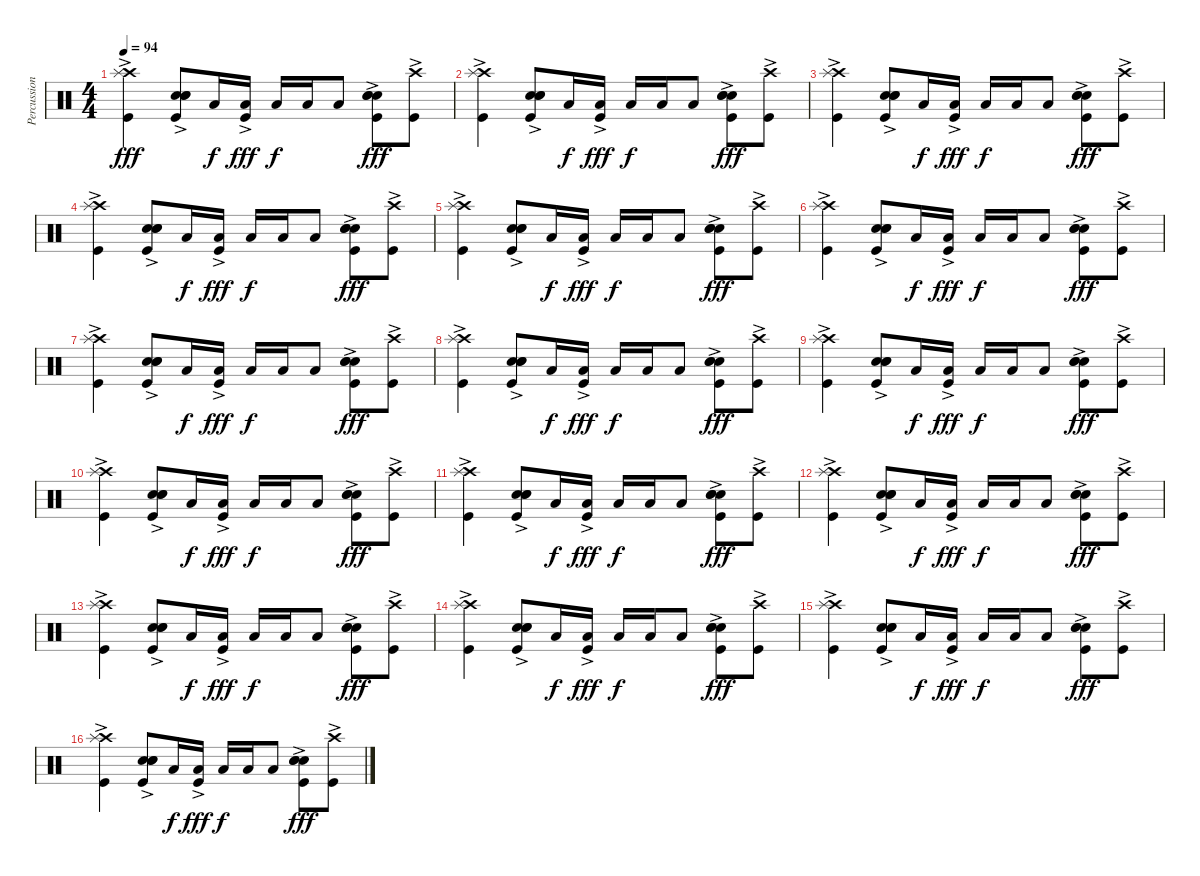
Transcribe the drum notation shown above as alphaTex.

\track ("Percussion" "Percussion") {instrument percussion}
\staff {score}
\articulation defaults
\ts (4 4)
\tempo 94
\clef neutral
\ks c
("Crash high (hit)" "Splash (hit)" "Kick (hit)"{ac}).4{dy fff} ("Kick (hit)"{ac} "Snare (hit) 2" "Electric Snare (hit)" "Hand Clap (hit)"{ac}).8 "Low Floor Tom (hit)".16{dy f} ("Kick (hit)"{ac} "Low Floor Tom (hit)").16{dy fff} "Low Floor Tom (hit)".16{dy f} "Low Floor Tom (hit)".16 "Low Floor Tom (hit)".8 ("Hand Clap (hit)" "Electric Snare (hit)" "Snare (hit) 2" "Kick (hit)"{ac}).8{dy fff} ("Crash high (hit)" "Kick (hit)"{ac}).8 |
("Crash high (hit)" "Splash (hit)" "Kick (hit)"{ac}).4 ("Kick (hit)"{ac} "Snare (hit) 2" "Electric Snare (hit)" "Hand Clap (hit)"{ac}).8 "Low Floor Tom (hit)".16{dy f} ("Kick (hit)"{ac} "Low Floor Tom (hit)").16{dy fff} "Low Floor Tom (hit)".16{dy f} "Low Floor Tom (hit)".16 "Low Floor Tom (hit)".8 ("Hand Clap (hit)" "Electric Snare (hit)" "Snare (hit) 2" "Kick (hit)"{ac}).8{dy fff} ("Crash high (hit)" "Kick (hit)"{ac}).8 |
("Crash high (hit)" "Splash (hit)" "Kick (hit)"{ac}).4 ("Kick (hit)"{ac} "Snare (hit) 2" "Electric Snare (hit)" "Hand Clap (hit)"{ac}).8 "Low Floor Tom (hit)".16{dy f} ("Kick (hit)"{ac} "Low Floor Tom (hit)").16{dy fff} "Low Floor Tom (hit)".16{dy f} "Low Floor Tom (hit)".16 "Low Floor Tom (hit)".8 ("Hand Clap (hit)" "Electric Snare (hit)" "Snare (hit) 2" "Kick (hit)"{ac}).8{dy fff} ("Crash high (hit)" "Kick (hit)"{ac}).8 |
("Crash high (hit)" "Splash (hit)" "Kick (hit)"{ac}).4 ("Kick (hit)"{ac} "Snare (hit) 2" "Electric Snare (hit)" "Hand Clap (hit)"{ac}).8 "Low Floor Tom (hit)".16{dy f} ("Kick (hit)"{ac} "Low Floor Tom (hit)").16{dy fff} "Low Floor Tom (hit)".16{dy f} "Low Floor Tom (hit)".16 "Low Floor Tom (hit)".8 ("Hand Clap (hit)" "Electric Snare (hit)" "Snare (hit) 2" "Kick (hit)"{ac}).8{dy fff} ("Crash high (hit)" "Kick (hit)"{ac}).8 |
("Crash high (hit)" "Splash (hit)" "Kick (hit)"{ac}).4 ("Kick (hit)"{ac} "Snare (hit) 2" "Electric Snare (hit)" "Hand Clap (hit)"{ac}).8 "Low Floor Tom (hit)".16{dy f} ("Kick (hit)"{ac} "Low Floor Tom (hit)").16{dy fff} "Low Floor Tom (hit)".16{dy f} "Low Floor Tom (hit)".16 "Low Floor Tom (hit)".8 ("Hand Clap (hit)" "Electric Snare (hit)" "Snare (hit) 2" "Kick (hit)"{ac}).8{dy fff} ("Crash high (hit)" "Kick (hit)"{ac}).8 |
("Crash high (hit)" "Splash (hit)" "Kick (hit)"{ac}).4 ("Kick (hit)"{ac} "Snare (hit) 2" "Electric Snare (hit)" "Hand Clap (hit)"{ac}).8 "Low Floor Tom (hit)".16{dy f} ("Kick (hit)"{ac} "Low Floor Tom (hit)").16{dy fff} "Low Floor Tom (hit)".16{dy f} "Low Floor Tom (hit)".16 "Low Floor Tom (hit)".8 ("Hand Clap (hit)" "Electric Snare (hit)" "Snare (hit) 2" "Kick (hit)"{ac}).8{dy fff} ("Crash high (hit)" "Kick (hit)"{ac}).8 |
("Crash high (hit)" "Splash (hit)" "Kick (hit)"{ac}).4 ("Kick (hit)"{ac} "Snare (hit) 2" "Electric Snare (hit)" "Hand Clap (hit)"{ac}).8 "Low Floor Tom (hit)".16{dy f} ("Kick (hit)"{ac} "Low Floor Tom (hit)").16{dy fff} "Low Floor Tom (hit)".16{dy f} "Low Floor Tom (hit)".16 "Low Floor Tom (hit)".8 ("Hand Clap (hit)" "Electric Snare (hit)" "Snare (hit) 2" "Kick (hit)"{ac}).8{dy fff} ("Crash high (hit)" "Kick (hit)"{ac}).8 |
("Crash high (hit)" "Splash (hit)" "Kick (hit)"{ac}).4 ("Kick (hit)"{ac} "Snare (hit) 2" "Electric Snare (hit)" "Hand Clap (hit)"{ac}).8 "Low Floor Tom (hit)".16{dy f} ("Kick (hit)"{ac} "Low Floor Tom (hit)").16{dy fff} "Low Floor Tom (hit)".16{dy f} "Low Floor Tom (hit)".16 "Low Floor Tom (hit)".8 ("Hand Clap (hit)" "Electric Snare (hit)" "Snare (hit) 2" "Kick (hit)"{ac}).8{dy fff} ("Crash high (hit)" "Kick (hit)"{ac}).8 |
("Crash high (hit)" "Splash (hit)" "Kick (hit)"{ac}).4 ("Kick (hit)"{ac} "Snare (hit) 2" "Electric Snare (hit)" "Hand Clap (hit)"{ac}).8 "Low Floor Tom (hit)".16{dy f} ("Kick (hit)"{ac} "Low Floor Tom (hit)").16{dy fff} "Low Floor Tom (hit)".16{dy f} "Low Floor Tom (hit)".16 "Low Floor Tom (hit)".8 ("Hand Clap (hit)" "Electric Snare (hit)" "Snare (hit) 2" "Kick (hit)"{ac}).8{dy fff} ("Crash high (hit)" "Kick (hit)"{ac}).8 |
("Crash high (hit)" "Splash (hit)" "Kick (hit)"{ac}).4 ("Kick (hit)"{ac} "Snare (hit) 2" "Electric Snare (hit)" "Hand Clap (hit)"{ac}).8 "Low Floor Tom (hit)".16{dy f} ("Kick (hit)"{ac} "Low Floor Tom (hit)").16{dy fff} "Low Floor Tom (hit)".16{dy f} "Low Floor Tom (hit)".16 "Low Floor Tom (hit)".8 ("Hand Clap (hit)" "Electric Snare (hit)" "Snare (hit) 2" "Kick (hit)"{ac}).8{dy fff} ("Crash high (hit)" "Kick (hit)"{ac}).8 |
("Crash high (hit)" "Splash (hit)" "Kick (hit)"{ac}).4 ("Kick (hit)"{ac} "Snare (hit) 2" "Electric Snare (hit)" "Hand Clap (hit)"{ac}).8 "Low Floor Tom (hit)".16{dy f} ("Kick (hit)"{ac} "Low Floor Tom (hit)").16{dy fff} "Low Floor Tom (hit)".16{dy f} "Low Floor Tom (hit)".16 "Low Floor Tom (hit)".8 ("Hand Clap (hit)" "Electric Snare (hit)" "Snare (hit) 2" "Kick (hit)"{ac}).8{dy fff} ("Crash high (hit)" "Kick (hit)"{ac}).8 |
("Crash high (hit)" "Splash (hit)" "Kick (hit)"{ac}).4 ("Kick (hit)"{ac} "Snare (hit) 2" "Electric Snare (hit)" "Hand Clap (hit)"{ac}).8 "Low Floor Tom (hit)".16{dy f} ("Kick (hit)"{ac} "Low Floor Tom (hit)").16{dy fff} "Low Floor Tom (hit)".16{dy f} "Low Floor Tom (hit)".16 "Low Floor Tom (hit)".8 ("Hand Clap (hit)" "Electric Snare (hit)" "Snare (hit) 2" "Kick (hit)"{ac}).8{dy fff} ("Crash high (hit)" "Kick (hit)"{ac}).8 |
("Crash high (hit)" "Splash (hit)" "Kick (hit)"{ac}).4 ("Kick (hit)"{ac} "Snare (hit) 2" "Electric Snare (hit)" "Hand Clap (hit)"{ac}).8 "Low Floor Tom (hit)".16{dy f} ("Kick (hit)"{ac} "Low Floor Tom (hit)").16{dy fff} "Low Floor Tom (hit)".16{dy f} "Low Floor Tom (hit)".16 "Low Floor Tom (hit)".8 ("Hand Clap (hit)" "Electric Snare (hit)" "Snare (hit) 2" "Kick (hit)"{ac}).8{dy fff} ("Crash high (hit)" "Kick (hit)"{ac}).8 |
("Crash high (hit)" "Splash (hit)" "Kick (hit)"{ac}).4 ("Kick (hit)"{ac} "Snare (hit) 2" "Electric Snare (hit)" "Hand Clap (hit)"{ac}).8 "Low Floor Tom (hit)".16{dy f} ("Kick (hit)"{ac} "Low Floor Tom (hit)").16{dy fff} "Low Floor Tom (hit)".16{dy f} "Low Floor Tom (hit)".16 "Low Floor Tom (hit)".8 ("Hand Clap (hit)" "Electric Snare (hit)" "Snare (hit) 2" "Kick (hit)"{ac}).8{dy fff} ("Crash high (hit)" "Kick (hit)"{ac}).8 |
("Crash high (hit)" "Splash (hit)" "Kick (hit)"{ac}).4 ("Kick (hit)"{ac} "Snare (hit) 2" "Electric Snare (hit)" "Hand Clap (hit)"{ac}).8 "Low Floor Tom (hit)".16{dy f} ("Kick (hit)"{ac} "Low Floor Tom (hit)").16{dy fff} "Low Floor Tom (hit)".16{dy f} "Low Floor Tom (hit)".16 "Low Floor Tom (hit)".8 ("Hand Clap (hit)" "Electric Snare (hit)" "Snare (hit) 2" "Kick (hit)"{ac}).8{dy fff} ("Crash high (hit)" "Kick (hit)"{ac}).8 |
("Crash high (hit)" "Splash (hit)" "Kick (hit)"{ac}).4 ("Kick (hit)"{ac} "Snare (hit) 2" "Electric Snare (hit)" "Hand Clap (hit)"{ac}).8 "Low Floor Tom (hit)".16{dy f} ("Kick (hit)"{ac} "Low Floor Tom (hit)").16{dy fff} "Low Floor Tom (hit)".16{dy f} "Low Floor Tom (hit)".16 "Low Floor Tom (hit)".8 ("Hand Clap (hit)" "Electric Snare (hit)" "Snare (hit) 2" "Kick (hit)"{ac}).8{dy fff} ("Crash high (hit)" "Kick (hit)"{ac}).8
